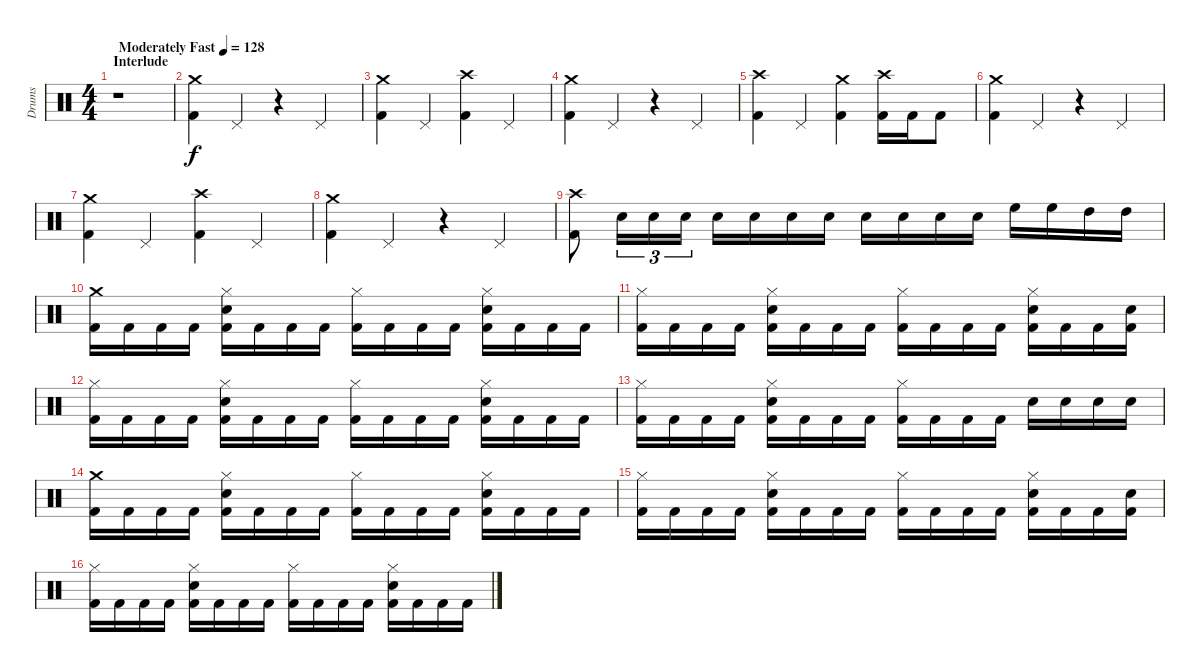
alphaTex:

\track ("Drums" "Drums") {instrument percussion}
\staff {score}
\articulation defaults
\ts (4 4)
\section ("" "Interlude")
\tempo (128 "Moderately Fast")
\clef neutral
\ks c
r.1{dy f} |
("Crash medium (hit)" "Kick (hit) 2").4 "Pedal Hi-Hat (hit)".4 r.4 "Pedal Hi-Hat (hit)".4 |
("Crash medium (hit)" "Kick (hit) 2").4 "Pedal Hi-Hat (hit)".4 ("Crash high (hit)" "Kick (hit) 2").4 "Pedal Hi-Hat (hit)".4 |
("Crash medium (hit)" "Kick (hit) 2").4 "Pedal Hi-Hat (hit)".4 r.4 "Pedal Hi-Hat (hit)".4 |
("Crash high (hit)" "Kick (hit) 2").4 "Pedal Hi-Hat (hit)".4 ("Crash medium (hit)" "Kick (hit) 2").4 ("Crash high (hit)" "Kick (hit) 2").16 "Kick (hit) 2".16 "Kick (hit) 2".8 |
("Crash medium (hit)" "Kick (hit) 2").4 "Pedal Hi-Hat (hit)".4 r.4 "Pedal Hi-Hat (hit)".4 |
("Crash medium (hit)" "Kick (hit) 2").4 "Pedal Hi-Hat (hit)".4 ("Crash high (hit)" "Kick (hit) 2").4 "Pedal Hi-Hat (hit)".4 |
("Crash medium (hit)" "Kick (hit) 2").4 "Pedal Hi-Hat (hit)".4 r.4 "Pedal Hi-Hat (hit)".4 |
("Crash high (hit)" "Kick (hit) 2").8 "Snare (hit) 2".16{tu (3 2)} "Snare (hit) 2".16{tu (3 2)} "Snare (hit) 2".16{tu (3 2)} "Snare (hit) 2".16 "Snare (hit) 2".16 "Snare (hit) 2".16 "Snare (hit) 2".16 "Snare (hit) 2".16 "Snare (hit) 2".16 "Snare (hit) 2".16 "Snare (hit) 2".16 "High Floor Tom (hit)".16 "High Floor Tom (hit)".16 "High Tom (hit)".16 "High Tom (hit)".16 |
("Crash medium (hit)" "Kick (hit) 2").16 "Kick (hit) 2".16 "Kick (hit) 2".16 "Kick (hit) 2".16 ("Hi-Hat (closed)" "Snare (hit) 2" "Kick (hit) 2").16 "Kick (hit) 2".16 "Kick (hit) 2".16 "Kick (hit) 2".16 ("Hi-Hat (closed)" "Kick (hit) 2").16 "Kick (hit) 2".16 "Kick (hit) 2".16 "Kick (hit) 2".16 ("Hi-Hat (closed)" "Snare (hit) 2" "Kick (hit) 2").16 "Kick (hit) 2".16 "Kick (hit) 2".16 "Kick (hit) 2".16 |
("Hi-Hat (closed)" "Kick (hit) 2").16 "Kick (hit) 2".16 "Kick (hit) 2".16 "Kick (hit) 2".16 ("Hi-Hat (closed)" "Snare (hit) 2" "Kick (hit) 2").16 "Kick (hit) 2".16 "Kick (hit) 2".16 "Kick (hit) 2".16 ("Hi-Hat (closed)" "Kick (hit) 2").16 "Kick (hit) 2".16 "Kick (hit) 2".16 "Kick (hit) 2".16 ("Hi-Hat (closed)" "Snare (hit) 2" "Kick (hit) 2").16 "Kick (hit) 2".16 "Kick (hit) 2".16 ("Snare (hit) 2" "Kick (hit) 2").16 |
("Hi-Hat (closed)" "Kick (hit) 2").16 "Kick (hit) 2".16 "Kick (hit) 2".16 "Kick (hit) 2".16 ("Hi-Hat (closed)" "Snare (hit) 2" "Kick (hit) 2").16 "Kick (hit) 2".16 "Kick (hit) 2".16 "Kick (hit) 2".16 ("Hi-Hat (closed)" "Kick (hit) 2").16 "Kick (hit) 2".16 "Kick (hit) 2".16 "Kick (hit) 2".16 ("Hi-Hat (closed)" "Snare (hit) 2" "Kick (hit) 2").16 "Kick (hit) 2".16 "Kick (hit) 2".16 "Kick (hit) 2".16 |
("Hi-Hat (closed)" "Kick (hit) 2").16 "Kick (hit) 2".16 "Kick (hit) 2".16 "Kick (hit) 2".16 ("Hi-Hat (closed)" "Snare (hit) 2" "Kick (hit) 2").16 "Kick (hit) 2".16 "Kick (hit) 2".16 "Kick (hit) 2".16 ("Hi-Hat (closed)" "Kick (hit) 2").16 "Kick (hit) 2".16 "Kick (hit) 2".16 "Kick (hit) 2".16 "Snare (hit) 2".16 "Snare (hit) 2".16 "Snare (hit) 2".16 "Snare (hit) 2".16 |
("Crash medium (hit)" "Kick (hit) 2").16 "Kick (hit) 2".16 "Kick (hit) 2".16 "Kick (hit) 2".16 ("Hi-Hat (closed)" "Snare (hit) 2" "Kick (hit) 2").16 "Kick (hit) 2".16 "Kick (hit) 2".16 "Kick (hit) 2".16 ("Hi-Hat (closed)" "Kick (hit) 2").16 "Kick (hit) 2".16 "Kick (hit) 2".16 "Kick (hit) 2".16 ("Hi-Hat (closed)" "Snare (hit) 2" "Kick (hit) 2").16 "Kick (hit) 2".16 "Kick (hit) 2".16 "Kick (hit) 2".16 |
("Hi-Hat (closed)" "Kick (hit) 2").16 "Kick (hit) 2".16 "Kick (hit) 2".16 "Kick (hit) 2".16 ("Hi-Hat (closed)" "Snare (hit) 2" "Kick (hit) 2").16 "Kick (hit) 2".16 "Kick (hit) 2".16 "Kick (hit) 2".16 ("Hi-Hat (closed)" "Kick (hit) 2").16 "Kick (hit) 2".16 "Kick (hit) 2".16 "Kick (hit) 2".16 ("Hi-Hat (closed)" "Snare (hit) 2" "Kick (hit) 2").16 "Kick (hit) 2".16 "Kick (hit) 2".16 ("Snare (hit) 2" "Kick (hit) 2").16 |
("Hi-Hat (closed)" "Kick (hit) 2").16 "Kick (hit) 2".16 "Kick (hit) 2".16 "Kick (hit) 2".16 ("Hi-Hat (closed)" "Snare (hit) 2" "Kick (hit) 2").16 "Kick (hit) 2".16 "Kick (hit) 2".16 "Kick (hit) 2".16 ("Hi-Hat (closed)" "Kick (hit) 2").16 "Kick (hit) 2".16 "Kick (hit) 2".16 "Kick (hit) 2".16 ("Hi-Hat (closed)" "Snare (hit) 2" "Kick (hit) 2").16 "Kick (hit) 2".16 "Kick (hit) 2".16 "Kick (hit) 2".16
